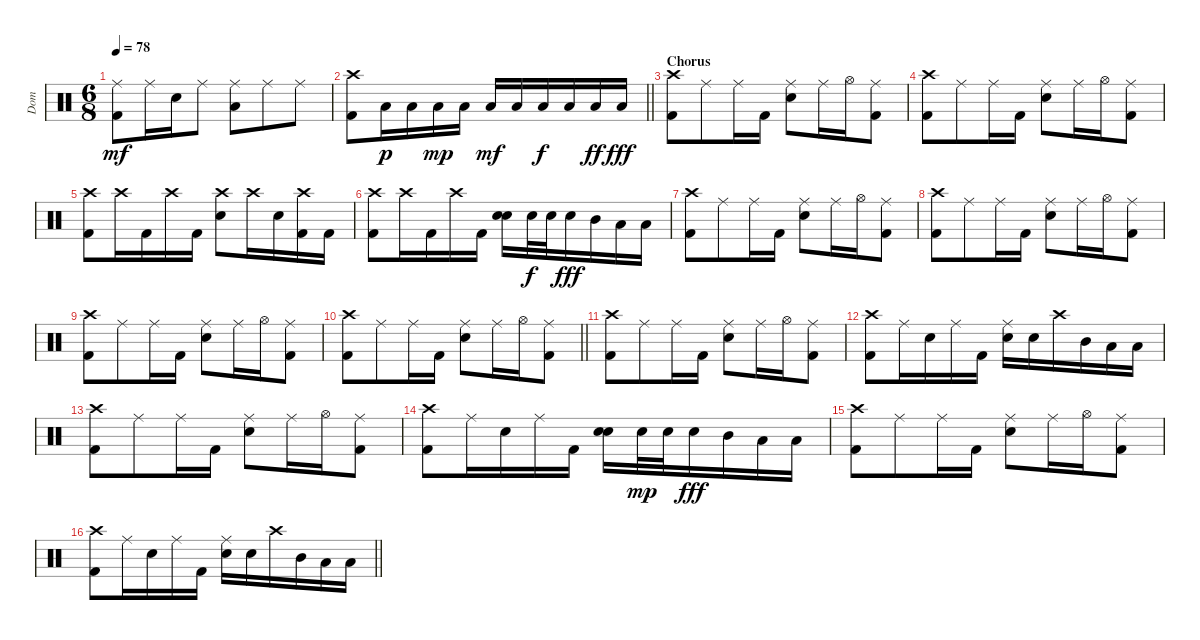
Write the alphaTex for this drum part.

\track ("Dom" "Dom") {instrument percussion}
\staff {score}
\articulation defaults
\ts (6 8)
\tempo 78
\clef neutral
\ks c
("Ride (middle)" "Kick (hit) 2").8{dy mf} "Ride (middle)".16 "Electric Snare (hit)".16 "Ride (middle)".8 ("Ride (middle)" "Low Tom (hit)").8 "Ride (middle)".8 "Ride (middle)".8 |
\barLineRight lightlight
("Crash high (hit)" "Kick (hit) 2").8 "Low Floor Tom (hit)".16{dy p} "Low Floor Tom (hit)".16 "Low Floor Tom (hit)".16{dy mp} "Low Floor Tom (hit)".16 "Low Floor Tom (hit)".16{dy mf} "Low Floor Tom (hit)".16 "Low Floor Tom (hit)".16{dy f} "Low Floor Tom (hit)".16 "Low Floor Tom (hit)".16{dy ff} "Low Floor Tom (hit)".16{dy fff} |
\section ("" "Chorus")
("Crash high (hit)" "Kick (hit) 2").8 "Ride (middle)".8 "Ride (middle)".16 "Kick (hit) 2".16 ("Ride (middle)" "Electric Snare (hit)").8 "Ride (middle)".16 "Hi-Hat (open)".16 ("Ride (middle)" "Kick (hit) 2").8 |
("Crash high (hit)" "Kick (hit) 2").8 "Ride (middle)".8 "Ride (middle)".16 "Kick (hit) 2".16 ("Ride (middle)" "Electric Snare (hit)").8 "Ride (middle)".16 "Hi-Hat (open)".16 ("Ride (middle)" "Kick (hit) 2").8 |
("Crash high (hit)" "Kick (hit) 2").8 "Crash high (hit)".16 "Kick (hit) 2".16 "Crash high (hit)".16 "Kick (hit) 2".16 ("Crash high (hit)" "Electric Snare (hit)").8 "Crash high (hit)".16 "Electric Snare (hit)".16 ("Crash high (hit)" "Kick (hit) 2").16 "Kick (hit) 2".16 |
("Crash high (hit)" "Kick (hit) 2").8 "Crash high (hit)".16 "Kick (hit) 2".16 "Crash high (hit)".16 "Kick (hit) 2".16 ("Electric Snare (hit)" "Electric Snare (hit)").16{bd 60} "Electric Snare (hit)".32{dy f} "Electric Snare (hit)".32 "Electric Snare (hit)".16{dy fff} "Mid Tom (hit)".16 "Low Tom (hit)".16 "Low Floor Tom (hit)".16 |
("Crash high (hit)" "Kick (hit) 2").8 "Ride (middle)".8 "Ride (middle)".16 "Kick (hit) 2".16 ("Ride (middle)" "Electric Snare (hit)").8 "Ride (middle)".16 "Hi-Hat (open)".16 ("Ride (middle)" "Kick (hit) 2").8 |
("Crash high (hit)" "Kick (hit) 2").8 "Ride (middle)".8 "Ride (middle)".16 "Kick (hit) 2".16 ("Ride (middle)" "Electric Snare (hit)").8 "Ride (middle)".16 "Hi-Hat (open)".16 ("Ride (middle)" "Kick (hit) 2").8 |
("Crash high (hit)" "Kick (hit) 2").8 "Ride (middle)".8 "Ride (middle)".16 "Kick (hit) 2".16 ("Ride (middle)" "Electric Snare (hit)").8 "Ride (middle)".16 "Hi-Hat (open)".16 ("Ride (middle)" "Kick (hit) 2").8 |
\barLineRight lightlight
("Crash high (hit)" "Kick (hit) 2").8 "Ride (middle)".8 "Ride (middle)".16 "Kick (hit) 2".16 ("Ride (middle)" "Electric Snare (hit)").8 "Ride (middle)".16 "Hi-Hat (open)".16 ("Ride (middle)" "Kick (hit) 2").8 |
("Crash high (hit)" "Kick (hit) 2").8 "Ride (middle)".8 "Ride (middle)".16 "Kick (hit) 2".16 ("Ride (middle)" "Electric Snare (hit)").8 "Ride (middle)".16 "Hi-Hat (open)".16 ("Ride (middle)" "Kick (hit) 2").8 |
("Crash high (hit)" "Kick (hit) 2").8 "Ride (middle)".16 "Electric Snare (hit)".16 "Ride (middle)".16 "Kick (hit) 2".16 ("Ride (middle)" "Electric Snare (hit)").16 "Electric Snare (hit)".16 "Crash high (hit)".16 "Mid Tom (hit)".16 "Low Tom (hit)".16 "Low Floor Tom (hit)".16 |
("Crash high (hit)" "Kick (hit) 2").8 "Ride (middle)".8 "Ride (middle)".16 "Kick (hit) 2".16 ("Ride (middle)" "Electric Snare (hit)").8 "Ride (middle)".16 "Hi-Hat (open)".16 ("Ride (middle)" "Kick (hit) 2").8 |
("Crash high (hit)" "Kick (hit) 2").8 "Ride (middle)".16 "Electric Snare (hit)".16 "Ride (middle)".16 "Kick (hit) 2".16 ("Electric Snare (hit)" "Electric Snare (hit)").16{bd 60} "Electric Snare (hit)".32{dy mp} "Electric Snare (hit)".32 "Electric Snare (hit)".16{dy fff} "Mid Tom (hit)".16 "Low Tom (hit)".16 "Low Floor Tom (hit)".16 |
("Crash high (hit)" "Kick (hit) 2").8 "Ride (middle)".8 "Ride (middle)".16 "Kick (hit) 2".16 ("Ride (middle)" "Electric Snare (hit)").8 "Ride (middle)".16 "Hi-Hat (open)".16 ("Ride (middle)" "Kick (hit) 2").8 |
\barLineRight lightlight
("Crash high (hit)" "Kick (hit) 2").8 "Ride (middle)".16 "Electric Snare (hit)".16 "Ride (middle)".16 "Kick (hit) 2".16 ("Ride (middle)" "Electric Snare (hit)").16 "Electric Snare (hit)".16 "Crash high (hit)".16 "Mid Tom (hit)".16 "Low Tom (hit)".16 "Low Floor Tom (hit)".16
